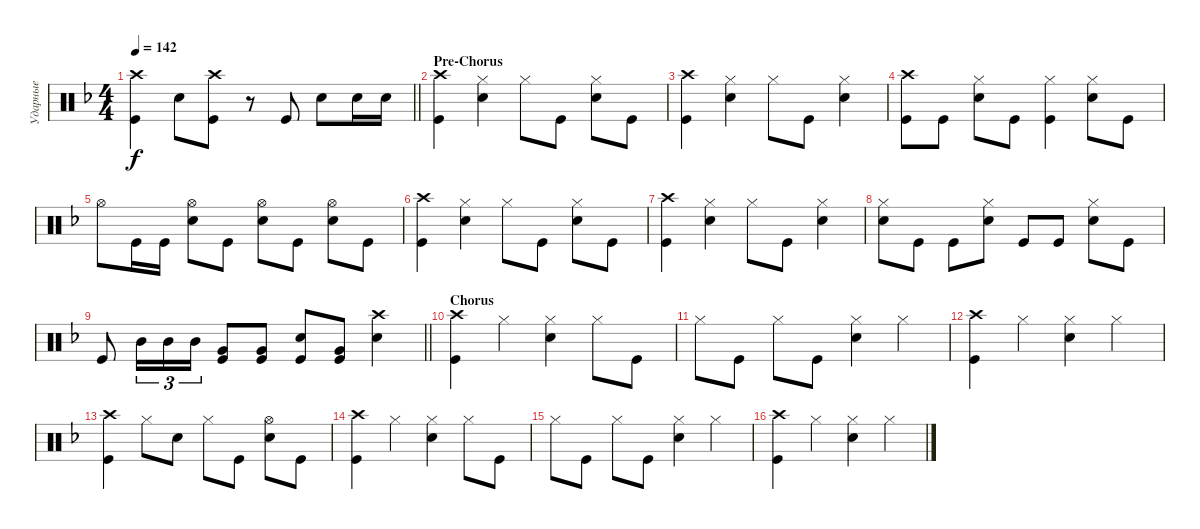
\track ("Ударные" "Ударные") {instrument percussion}
\staff {score}
\articulation defaults
\ts (4 4)
\tempo 142
\clef neutral
\barLineRight lightlight
\ks dminor
("Kick (hit)" "Crash high (hit)").4{dy f} "Snare (hit) 2".8 ("Kick (hit)" "Crash high (hit)").8 r.8 "Kick (hit)".8 "Snare (hit) 2".8 "Snare (hit) 2".16 "Snare (hit) 2".16 |
\section ("" "Pre-Chorus")
("Kick (hit)" "Crash high (hit)").4 ("Snare (hit) 2" "Hi-Hat (closed)").4 "Hi-Hat (closed)".8 "Kick (hit)".8 ("Snare (hit) 2" "Hi-Hat (closed)").8 "Kick (hit)".8 |
("Kick (hit)" "Crash high (hit)").4 ("Snare (hit) 2" "Hi-Hat (closed)").4 "Hi-Hat (closed)".8 "Kick (hit)".8 ("Snare (hit) 2" "Hi-Hat (closed)").4 |
("Kick (hit)" "Crash high (hit)").8 "Kick (hit)".8 ("Snare (hit) 2" "Hi-Hat (closed)").8 "Kick (hit)".8 ("Kick (hit)" "Hi-Hat (closed)").4 ("Snare (hit) 2" "Hi-Hat (closed)").8 "Kick (hit)".8 |
"Hi-Hat (open)".8 "Kick (hit)".16 "Kick (hit)".16 ("Hi-Hat (open)" "Snare (hit) 2").8 "Kick (hit)".8 ("Snare (hit) 2" "Hi-Hat (open)").8 "Kick (hit)".8 ("Snare (hit) 2" "Hi-Hat (open)").8 "Kick (hit)".8 |
("Kick (hit)" "Crash high (hit)").4 ("Snare (hit) 2" "Hi-Hat (closed)").4 "Hi-Hat (closed)".8 "Kick (hit)".8 ("Snare (hit) 2" "Hi-Hat (closed)").8 "Kick (hit)".8 |
("Kick (hit)" "Crash high (hit)").4 ("Snare (hit) 2" "Hi-Hat (closed)").4 "Hi-Hat (closed)".8 "Kick (hit)".8 ("Snare (hit) 2" "Hi-Hat (closed)").4 |
("Snare (hit) 2" "Hi-Hat (closed)").8 "Kick (hit)".8 "Kick (hit)".8 ("Snare (hit) 2" "Hi-Hat (closed)").8 "Kick (hit)".8 "Kick (hit)".8 ("Snare (hit) 2" "Hi-Hat (closed)").8 "Kick (hit)".8 |
\barLineRight lightlight "Kick (hit)".8 "Mid Tom (hit)".16{tu (3 2)} "Mid Tom (hit)".16{tu (3 2)} "Mid Tom (hit)".16{tu (3 2)}
("Kick (hit)" "Very Low Tom (hit)").8 ("Kick (hit)" "Very Low Tom (hit)").8 ("Snare (hit) 2" "Kick (hit)").8 ("Kick (hit)" "Very Low Tom (hit)").8 ("Snare (hit) 2" "Crash high (hit)").4 |
\section ("" "Chorus")
("Kick (hit)" "Crash high (hit)").4 "Hi-Hat (closed)".4 ("Hi-Hat (closed)" "Snare (hit) 2").4 "Hi-Hat (closed)".8 "Kick (hit)".8 |
"Hi-Hat (closed)".8 "Kick (hit)".8 "Hi-Hat (closed)".8 "Kick (hit)".8 ("Snare (hit) 2" "Hi-Hat (closed)").4 "Hi-Hat (closed)".4 |
("Kick (hit)" "Crash high (hit)").4 "Hi-Hat (closed)".4 ("Hi-Hat (closed)" "Snare (hit) 2").4 "Hi-Hat (closed)".4 |
("Kick (hit)" "Crash high (hit)").4 "Hi-Hat (closed)".8 "Snare (hit) 2".8 "Hi-Hat (closed)".8 "Kick (hit)".8 ("Snare (hit) 2" "Hi-Hat (open)").8 "Kick (hit)".8 |
("Kick (hit)" "Crash high (hit)").4 "Hi-Hat (closed)".4 ("Hi-Hat (closed)" "Snare (hit) 2").4 "Hi-Hat (closed)".8 "Kick (hit)".8 |
"Hi-Hat (closed)".8 "Kick (hit)".8 "Hi-Hat (closed)".8 "Kick (hit)".8 ("Snare (hit) 2" "Hi-Hat (closed)").4 "Hi-Hat (closed)".4 |
("Kick (hit)" "Crash high (hit)").4 "Hi-Hat (closed)".4 ("Hi-Hat (closed)" "Snare (hit) 2").4 "Hi-Hat (closed)".4
